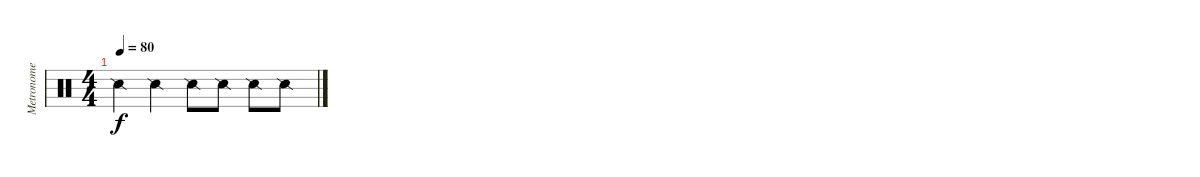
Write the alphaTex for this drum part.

\track ("Metronome" "Metronome") {instrument percussion}
\staff {score}
\articulation defaults
\ts (4 4)
\tempo 80
\clef neutral
\ks c "Snare (side stick) 2".4{dy f} "Snare (side stick) 2".4 "Snare (side stick) 2".8 "Snare (side stick) 2".8 "Snare (side stick) 2".8 "Snare (side stick) 2".8
